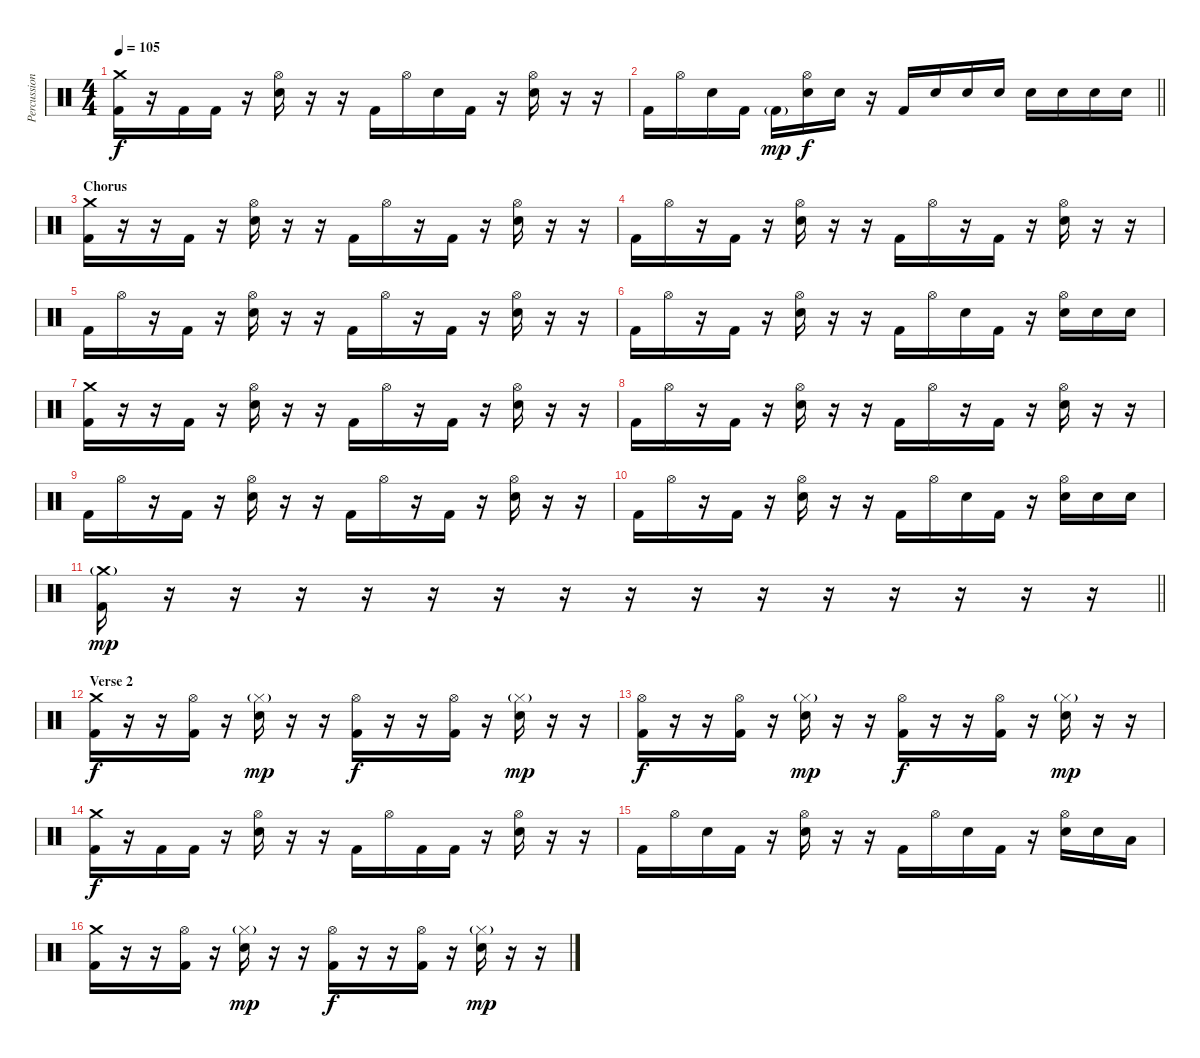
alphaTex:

\track ("Percussion" "Percussion") {instrument percussion}
\staff {score}
\articulation defaults
\ts (4 4)
\tempo 105
\clef neutral
\ks c
("Crash medium (hit)" "Kick (hit) 2").16{dy f} r.16 "Kick (hit) 2".16 "Kick (hit) 2".16 r.16 ("Hi-Hat (open)" "Electric Snare (hit)").16 r.16 r.16 "Kick (hit) 2".16 "Hi-Hat (open)".16 "Electric Snare (hit)".16 "Kick (hit) 2".16 r.16 ("Hi-Hat (open)" "Electric Snare (hit)").16 r.16 r.16 |
\barLineRight lightlight "Kick (hit) 2".16 "Hi-Hat (open)".16 "Electric Snare (hit)".16 "Kick (hit) 2".16 "Kick (hit) 2"{g}.16{dy mp}
("Hi-Hat (open)" "Electric Snare (hit)").16{dy f} "Electric Snare (hit)".16 r.16 "Kick (hit) 2".16 "Electric Snare (hit)".16 "Electric Snare (hit)".16 "Electric Snare (hit)".16 "Electric Snare (hit)".16 "Electric Snare (hit)".16 "Electric Snare (hit)".16 "Electric Snare (hit)".16 |
\section ("" "Chorus")
("Crash medium (hit)" "Kick (hit) 2").16 r.16 r.16 "Kick (hit) 2".16 r.16 ("Hi-Hat (open)" "Electric Snare (hit)").16 r.16 r.16 "Kick (hit) 2".16 "Hi-Hat (open)".16 r.16 "Kick (hit) 2".16 r.16 ("Hi-Hat (open)" "Electric Snare (hit)").16 r.16 r.16 |
"Kick (hit) 2".16 "Hi-Hat (open)".16 r.16 "Kick (hit) 2".16 r.16 ("Hi-Hat (open)" "Electric Snare (hit)").16 r.16 r.16 "Kick (hit) 2".16 "Hi-Hat (open)".16 r.16 "Kick (hit) 2".16 r.16 ("Hi-Hat (open)" "Electric Snare (hit)").16 r.16 r.16 |
"Kick (hit) 2".16 "Hi-Hat (open)".16 r.16 "Kick (hit) 2".16 r.16 ("Hi-Hat (open)" "Electric Snare (hit)").16 r.16 r.16 "Kick (hit) 2".16 "Hi-Hat (open)".16 r.16 "Kick (hit) 2".16 r.16 ("Hi-Hat (open)" "Electric Snare (hit)").16 r.16 r.16 |
"Kick (hit) 2".16 "Hi-Hat (open)".16 r.16 "Kick (hit) 2".16 r.16 ("Hi-Hat (open)" "Electric Snare (hit)").16 r.16 r.16 "Kick (hit) 2".16 "Hi-Hat (open)".16 "Electric Snare (hit)".16 "Kick (hit) 2".16 r.16 ("Hi-Hat (open)" "Electric Snare (hit)").16 "Electric Snare (hit)".16 "Electric Snare (hit)".16 |
("Crash medium (hit)" "Kick (hit) 2").16 r.16 r.16 "Kick (hit) 2".16 r.16 ("Hi-Hat (open)" "Electric Snare (hit)").16 r.16 r.16 "Kick (hit) 2".16 "Hi-Hat (open)".16 r.16 "Kick (hit) 2".16 r.16 ("Hi-Hat (open)" "Electric Snare (hit)").16 r.16 r.16 |
"Kick (hit) 2".16 "Hi-Hat (open)".16 r.16 "Kick (hit) 2".16 r.16 ("Hi-Hat (open)" "Electric Snare (hit)").16 r.16 r.16 "Kick (hit) 2".16 "Hi-Hat (open)".16 r.16 "Kick (hit) 2".16 r.16 ("Hi-Hat (open)" "Electric Snare (hit)").16 r.16 r.16 |
"Kick (hit) 2".16 "Hi-Hat (open)".16 r.16 "Kick (hit) 2".16 r.16 ("Hi-Hat (open)" "Electric Snare (hit)").16 r.16 r.16 "Kick (hit) 2".16 "Hi-Hat (open)".16 r.16 "Kick (hit) 2".16 r.16 ("Hi-Hat (open)" "Electric Snare (hit)").16 r.16 r.16 |
"Kick (hit) 2".16 "Hi-Hat (open)".16 r.16 "Kick (hit) 2".16 r.16 ("Hi-Hat (open)" "Electric Snare (hit)").16 r.16 r.16 "Kick (hit) 2".16 "Hi-Hat (open)".16 "Electric Snare (hit)".16 "Kick (hit) 2".16 r.16 ("Hi-Hat (open)" "Electric Snare (hit)").16 "Electric Snare (hit)".16 "Electric Snare (hit)".16 |
\barLineRight lightlight
("Crash medium (hit)"{g} "Kick (hit) 2").16{dy mp} r.16 r.16 r.16 r.16 r.16 r.16 r.16 r.16 r.16 r.16 r.16 r.16 r.16 r.16 r.16 |
\section ("" "Verse 2")
("Crash medium (hit)" "Kick (hit) 2").16{dy f} r.16 r.16 ("Hi-Hat (open)" "Kick (hit) 2").16 r.16 ("Hi-Hat (closed)"{g} "Electric Snare (hit)").16{dy mp} r.16 r.16 ("Hi-Hat (open)" "Kick (hit) 2").16{dy f} r.16 r.16 ("Hi-Hat (open)" "Kick (hit) 2").16 r.16 ("Hi-Hat (closed)"{g} "Electric Snare (hit)").16{dy mp} r.16 r.16 |
("Hi-Hat (open)" "Kick (hit) 2").16{dy f} r.16 r.16 ("Hi-Hat (open)" "Kick (hit) 2").16 r.16 ("Hi-Hat (closed)"{g} "Electric Snare (hit)").16{dy mp} r.16 r.16 ("Hi-Hat (open)" "Kick (hit) 2").16{dy f} r.16 r.16 ("Hi-Hat (open)" "Kick (hit) 2").16 r.16 ("Hi-Hat (closed)"{g} "Electric Snare (hit)").16{dy mp} r.16 r.16 |
("Crash medium (hit)" "Kick (hit) 2").16{dy f} r.16 "Kick (hit) 2".16 "Kick (hit) 2".16 r.16 ("Hi-Hat (open)" "Electric Snare (hit)").16 r.16 r.16 "Kick (hit) 2".16 "Hi-Hat (open)".16 "Kick (hit) 2".16 "Kick (hit) 2".16 r.16 ("Hi-Hat (open)" "Electric Snare (hit)").16 r.16 r.16 |
"Kick (hit) 2".16 "Hi-Hat (open)".16 "Electric Snare (hit)".16 "Kick (hit) 2".16 r.16 ("Hi-Hat (open)" "Electric Snare (hit)").16 r.16 r.16 "Kick (hit) 2".16 "Hi-Hat (open)".16 "Electric Snare (hit)".16 "Kick (hit) 2".16 r.16 ("Hi-Hat (open)" "Electric Snare (hit)").16 "Electric Snare (hit)".16 "Low Tom (hit)".16 |
("Crash medium (hit)" "Kick (hit) 2").16 r.16 r.16 ("Hi-Hat (open)" "Kick (hit) 2").16 r.16 ("Hi-Hat (closed)"{g} "Electric Snare (hit)").16{dy mp} r.16 r.16 ("Hi-Hat (open)" "Kick (hit) 2").16{dy f} r.16 r.16 ("Hi-Hat (open)" "Kick (hit) 2").16 r.16 ("Hi-Hat (closed)"{g} "Electric Snare (hit)").16{dy mp} r.16 r.16
